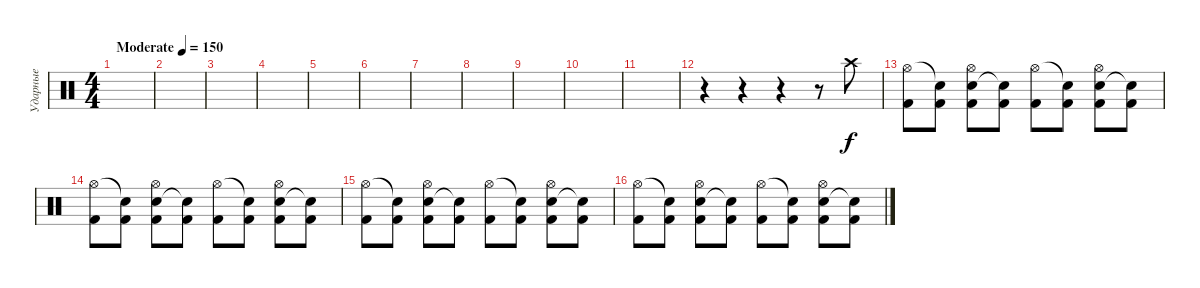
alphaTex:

\track ("Ударные" "Ударные") {instrument percussion}
\staff {score}
\articulation defaults
\ts (4 4)
\tempo (150 "Moderate")
\clef neutral
\ks c
|
|
|
|
|
|
|
|
|
|
|
r.4 r.4 r.4 r.8 "Crash high (hit)".8 |
("Hi-Hat (open)" "Kick (hit) 2").8 ("Snare (hit)"{t} "Kick (hit) 2").8 ("Electric Snare (hit)" "Hi-Hat (open)" "Kick (hit) 2").8 ("Snare (hit)"{t} "Kick (hit) 2").8 ("Hi-Hat (open)" "Kick (hit) 2").8 ("Snare (hit)"{t} "Kick (hit) 2").8 ("Electric Snare (hit)" "Hi-Hat (open)" "Kick (hit) 2").8 ("Snare (hit)"{t} "Kick (hit) 2").8 |
("Hi-Hat (open)" "Kick (hit) 2").8 ("Snare (hit)"{t} "Kick (hit) 2").8 ("Electric Snare (hit)" "Hi-Hat (open)" "Kick (hit) 2").8 ("Snare (hit)"{t} "Kick (hit) 2").8 ("Hi-Hat (open)" "Kick (hit) 2").8 ("Snare (hit)"{t} "Kick (hit) 2").8 ("Electric Snare (hit)" "Hi-Hat (open)" "Kick (hit) 2").8 ("Snare (hit)"{t} "Kick (hit) 2").8 |
("Hi-Hat (open)" "Kick (hit) 2").8 ("Snare (hit)"{t} "Kick (hit) 2").8 ("Electric Snare (hit)" "Hi-Hat (open)" "Kick (hit) 2").8 ("Snare (hit)"{t} "Kick (hit) 2").8 ("Hi-Hat (open)" "Kick (hit) 2").8 ("Snare (hit)"{t} "Kick (hit) 2").8 ("Electric Snare (hit)" "Hi-Hat (open)" "Kick (hit) 2").8 ("Snare (hit)"{t} "Kick (hit) 2").8 |
("Hi-Hat (open)" "Kick (hit) 2").8 ("Snare (hit)"{t} "Kick (hit) 2").8 ("Electric Snare (hit)" "Hi-Hat (open)" "Kick (hit) 2").8 ("Snare (hit)"{t} "Kick (hit) 2").8 ("Hi-Hat (open)" "Kick (hit) 2").8 ("Snare (hit)"{t} "Kick (hit) 2").8 ("Electric Snare (hit)" "Hi-Hat (open)" "Kick (hit) 2").8 ("Snare (hit)"{t} "Kick (hit) 2").8
